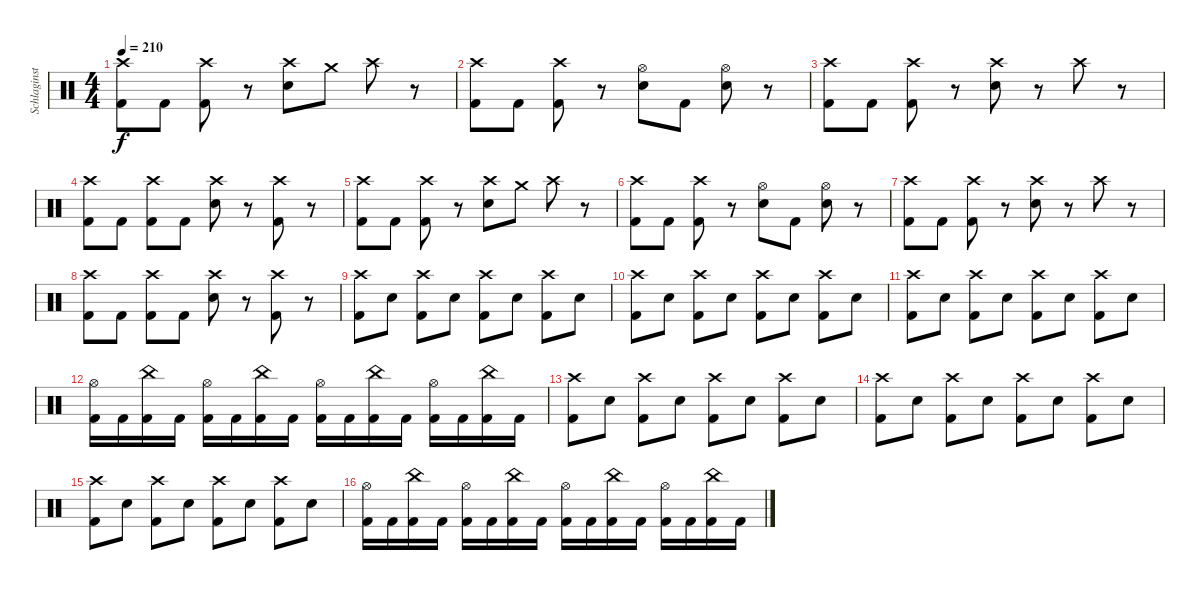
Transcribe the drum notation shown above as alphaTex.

\track ("Schlaginstrumente - Auswahl" "Schlaginst") {instrument percussion}
\staff {score}
\articulation defaults
\ts (4 4)
\tempo 210
\clef neutral
\ks c
("Crash high (hit)" "Kick (hit) 2").8{dy f} "Kick (hit) 2".8 ("Crash high (hit)" "Kick (hit) 2").8 r.8 ("Crash high (hit)" "Snare (hit) 2").8 "Crash medium (hit)".8 "Crash high (hit)".8 r.8 |
("Crash high (hit)" "Kick (hit) 2").8 "Kick (hit) 2".8 ("Crash high (hit)" "Kick (hit) 2").8 r.8 ("Hi-Hat (open)" "Snare (hit) 2").8 "Kick (hit) 2".8 ("Hi-Hat (open)" "Snare (hit) 2").8 r.8 |
("Crash high (hit)" "Kick (hit) 2").8 "Kick (hit) 2".8 ("Crash high (hit)" "Kick (hit) 2").8 r.8 ("Crash high (hit)" "Snare (hit) 2").8 r.8 "Crash high (hit)".8 r.8 |
("Crash high (hit)" "Kick (hit) 2").8 "Kick (hit) 2".8 ("Crash high (hit)" "Kick (hit) 2").8 "Kick (hit) 2".8 ("Crash high (hit)" "Snare (hit) 2").8 r.8 ("Crash high (hit)" "Kick (hit) 2").8 r.8 |
("Crash high (hit)" "Kick (hit) 2").8 "Kick (hit) 2".8 ("Crash high (hit)" "Kick (hit) 2").8 r.8 ("Crash high (hit)" "Snare (hit) 2").8 "Crash medium (hit)".8 "Crash high (hit)".8 r.8 |
("Crash high (hit)" "Kick (hit) 2").8 "Kick (hit) 2".8 ("Crash high (hit)" "Kick (hit) 2").8 r.8 ("Hi-Hat (open)" "Snare (hit) 2").8 "Kick (hit) 2".8 ("Hi-Hat (open)" "Snare (hit) 2").8 r.8 |
("Crash high (hit)" "Kick (hit) 2").8 "Kick (hit) 2".8 ("Crash high (hit)" "Kick (hit) 2").8 r.8 ("Crash high (hit)" "Snare (hit) 2").8 r.8 "Crash high (hit)".8 r.8 |
("Crash high (hit)" "Kick (hit) 2").8 "Kick (hit) 2".8 ("Crash high (hit)" "Kick (hit) 2").8 "Kick (hit) 2".8 ("Crash high (hit)" "Snare (hit) 2").8 r.8 ("Crash high (hit)" "Kick (hit) 2").8 r.8 |
("Crash high (hit)" "Kick (hit) 2").8 "Snare (hit) 2".8 ("Crash high (hit)" "Kick (hit) 2").8 "Snare (hit) 2".8 ("Crash high (hit)" "Kick (hit) 2").8 "Snare (hit) 2".8 ("Crash high (hit)" "Kick (hit) 2").8 "Snare (hit) 2".8 |
("Crash high (hit)" "Kick (hit) 2").8 "Snare (hit) 2".8 ("Crash high (hit)" "Kick (hit) 2").8 "Snare (hit) 2".8 ("Crash high (hit)" "Kick (hit) 2").8 "Snare (hit) 2".8 ("Crash high (hit)" "Kick (hit) 2").8 "Snare (hit) 2".8 |
("Crash high (hit)" "Kick (hit) 2").8 "Snare (hit) 2".8 ("Crash high (hit)" "Kick (hit) 2").8 "Snare (hit) 2".8 ("Crash high (hit)" "Kick (hit) 2").8 "Snare (hit) 2".8 ("Crash high (hit)" "Kick (hit) 2").8 "Snare (hit) 2".8 |
("Hi-Hat (open)" "Kick (hit) 2").16 "Kick (hit) 2".16 ("China (hit)" "Kick (hit) 2").16 "Kick (hit) 2".16 ("Hi-Hat (open)" "Kick (hit) 2").16 "Kick (hit) 2".16 ("China (hit)" "Kick (hit) 2").16 "Kick (hit) 2".16 ("Hi-Hat (open)" "Kick (hit) 2").16 "Kick (hit) 2".16 ("China (hit)" "Kick (hit) 2").16 "Kick (hit) 2".16 ("Hi-Hat (open)" "Kick (hit) 2").16 "Kick (hit) 2".16 ("China (hit)" "Kick (hit) 2").16 "Kick (hit) 2".16 |
("Crash high (hit)" "Kick (hit) 2").8 "Snare (hit) 2".8 ("Crash high (hit)" "Kick (hit) 2").8 "Snare (hit) 2".8 ("Crash high (hit)" "Kick (hit) 2").8 "Snare (hit) 2".8 ("Crash high (hit)" "Kick (hit) 2").8 "Snare (hit) 2".8 |
("Crash high (hit)" "Kick (hit) 2").8 "Snare (hit) 2".8 ("Crash high (hit)" "Kick (hit) 2").8 "Snare (hit) 2".8 ("Crash high (hit)" "Kick (hit) 2").8 "Snare (hit) 2".8 ("Crash high (hit)" "Kick (hit) 2").8 "Snare (hit) 2".8 |
("Crash high (hit)" "Kick (hit) 2").8 "Snare (hit) 2".8 ("Crash high (hit)" "Kick (hit) 2").8 "Snare (hit) 2".8 ("Crash high (hit)" "Kick (hit) 2").8 "Snare (hit) 2".8 ("Crash high (hit)" "Kick (hit) 2").8 "Snare (hit) 2".8 |
("Hi-Hat (open)" "Kick (hit) 2").16 "Kick (hit) 2".16 ("China (hit)" "Kick (hit) 2").16 "Kick (hit) 2".16 ("Hi-Hat (open)" "Kick (hit) 2").16 "Kick (hit) 2".16 ("China (hit)" "Kick (hit) 2").16 "Kick (hit) 2".16 ("Hi-Hat (open)" "Kick (hit) 2").16 "Kick (hit) 2".16 ("China (hit)" "Kick (hit) 2").16 "Kick (hit) 2".16 ("Hi-Hat (open)" "Kick (hit) 2").16 "Kick (hit) 2".16 ("China (hit)" "Kick (hit) 2").16 "Kick (hit) 2".16
